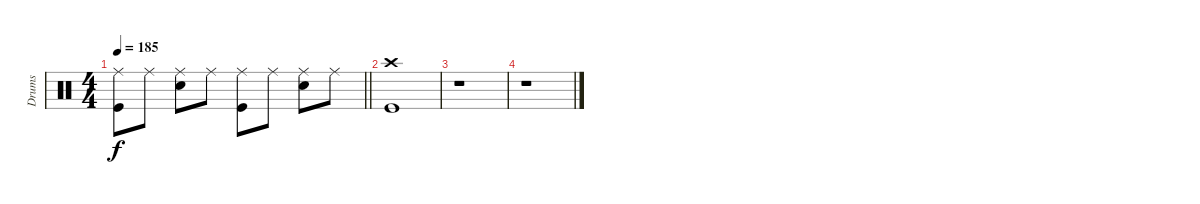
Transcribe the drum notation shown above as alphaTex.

\track ("Drums" "Drums") {instrument percussion}
\staff {score}
\articulation defaults
\ts (4 4)
\tempo 185
\clef neutral
\barLineRight lightlight
\ks c
("Ride (middle)" "Kick (hit)").8{dy f} "Ride (middle)".8 ("Ride (middle)" "Snare (hit) 2").8 "Ride (middle)".8 ("Ride (middle)" "Kick (hit)").8 "Ride (middle)".8 ("Ride (middle)" "Snare (hit) 2").8 "Ride (middle)".8 |
("Crash high (hit)" "Kick (hit)").1 |
r.1 |
r.1
